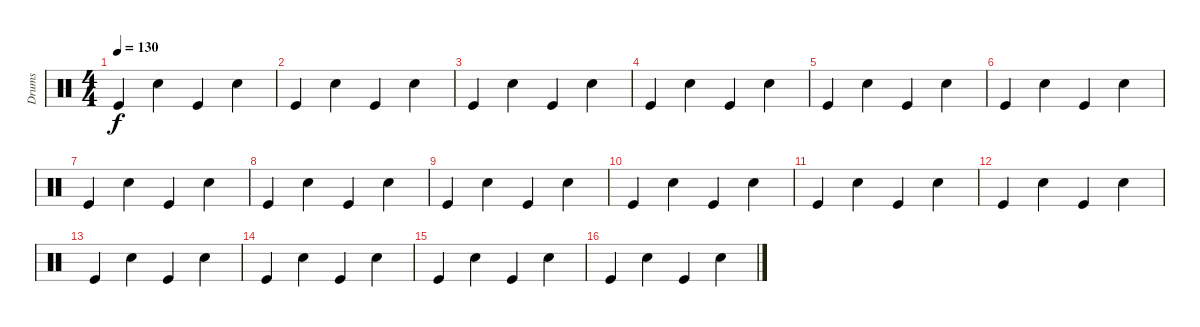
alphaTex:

\track ("Drums" "Drums") {instrument percussion}
\staff {score}
\articulation defaults
\ts (4 4)
\tempo 130
\clef neutral
\ks c "Kick (hit)".4{dy f} "Snare (hit) 2".4 "Kick (hit)".4 "Snare (hit) 2".4
|
"Kick (hit)".4 "Snare (hit) 2".4 "Kick (hit)".4 "Snare (hit) 2".4 |
"Kick (hit)".4 "Snare (hit) 2".4 "Kick (hit)".4 "Snare (hit) 2".4 |
"Kick (hit)".4 "Snare (hit) 2".4 "Kick (hit)".4 "Snare (hit) 2".4 |
"Kick (hit)".4 "Snare (hit) 2".4 "Kick (hit)".4 "Snare (hit) 2".4 |
"Kick (hit)".4 "Snare (hit) 2".4 "Kick (hit)".4 "Snare (hit) 2".4 |
"Kick (hit)".4 "Snare (hit) 2".4 "Kick (hit)".4 "Snare (hit) 2".4 |
"Kick (hit)".4 "Snare (hit) 2".4 "Kick (hit)".4 "Snare (hit) 2".4 |
"Kick (hit)".4 "Snare (hit) 2".4 "Kick (hit)".4 "Snare (hit) 2".4 |
"Kick (hit)".4 "Snare (hit) 2".4 "Kick (hit)".4 "Snare (hit) 2".4 |
"Kick (hit)".4 "Snare (hit) 2".4 "Kick (hit)".4 "Snare (hit) 2".4 |
"Kick (hit)".4 "Snare (hit) 2".4 "Kick (hit)".4 "Snare (hit) 2".4 |
"Kick (hit)".4 "Snare (hit) 2".4 "Kick (hit)".4 "Snare (hit) 2".4 |
"Kick (hit)".4 "Snare (hit) 2".4 "Kick (hit)".4 "Snare (hit) 2".4 |
"Kick (hit)".4 "Snare (hit) 2".4 "Kick (hit)".4 "Snare (hit) 2".4 |
"Kick (hit)".4 "Snare (hit) 2".4 "Kick (hit)".4 "Snare (hit) 2".4
